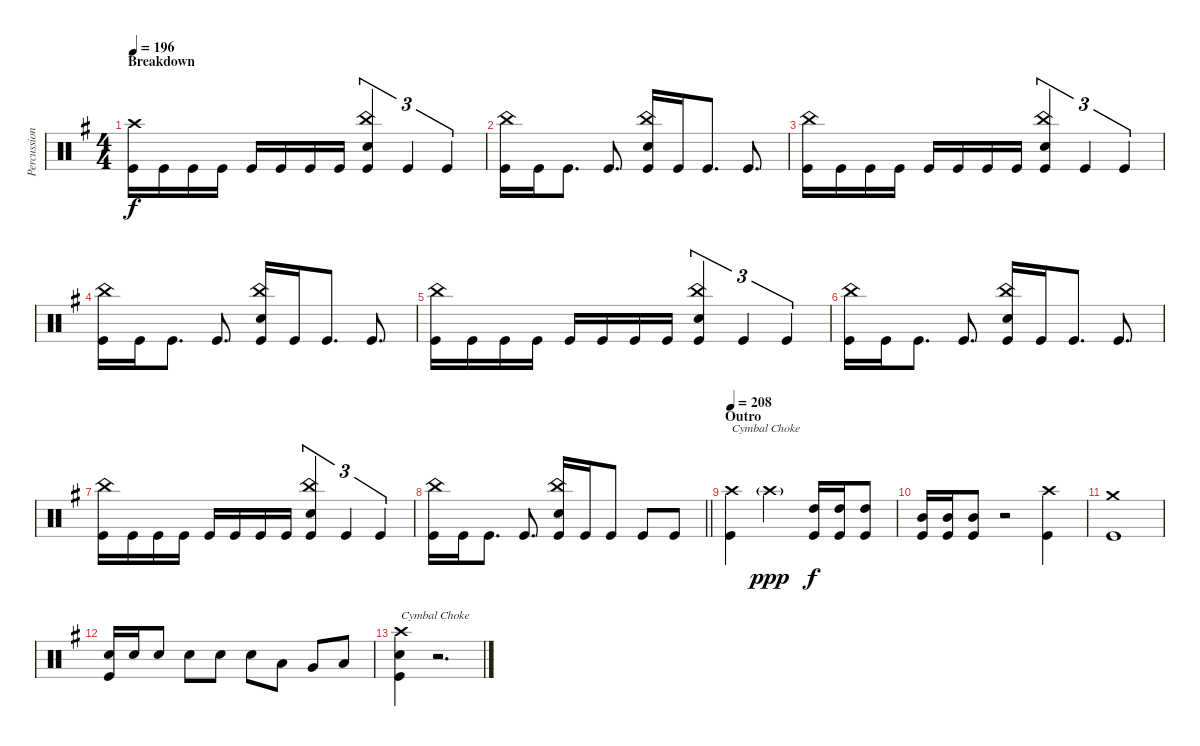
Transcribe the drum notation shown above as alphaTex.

\track ("Percussion" "Percussion") {instrument percussion}
\staff {score}
\articulation defaults
\ts (4 4)
\section ("" "Breakdown")
\tempo 196
\clef neutral
\ks g
("Crash high (hit)" "Kick (hit)").16{dy f} "Kick (hit)".16 "Kick (hit)".16 "Kick (hit)".16 "Kick (hit)".16 "Kick (hit)".16 "Kick (hit)".16 "Kick (hit)".16 ("China (hit)" "Electric Snare (hit)" "Kick (hit)").4{tu (3 2)} "Kick (hit)".4{tu (3 2)} "Kick (hit)".4{tu (3 2)} |
("China (hit)" "Kick (hit)").16 "Kick (hit)".16 "Kick (hit)".8{d} "Kick (hit)".8{d} ("China (hit)" "Electric Snare (hit)" "Kick (hit)").16 "Kick (hit)".16 "Kick (hit)".8{d} "Kick (hit)".8{d} |
("China (hit)" "Kick (hit)").16 "Kick (hit)".16 "Kick (hit)".16 "Kick (hit)".16 "Kick (hit)".16 "Kick (hit)".16 "Kick (hit)".16 "Kick (hit)".16 ("China (hit)" "Electric Snare (hit)" "Kick (hit)").4{tu (3 2)} "Kick (hit)".4{tu (3 2)} "Kick (hit)".4{tu (3 2)} |
("China (hit)" "Kick (hit)").16 "Kick (hit)".16 "Kick (hit)".8{d} "Kick (hit)".8{d} ("China (hit)" "Electric Snare (hit)" "Kick (hit)").16 "Kick (hit)".16 "Kick (hit)".8{d} "Kick (hit)".8{d} |
("China (hit)" "Kick (hit)").16 "Kick (hit)".16 "Kick (hit)".16 "Kick (hit)".16 "Kick (hit)".16 "Kick (hit)".16 "Kick (hit)".16 "Kick (hit)".16 ("China (hit)" "Electric Snare (hit)" "Kick (hit)").4{tu (3 2)} "Kick (hit)".4{tu (3 2)} "Kick (hit)".4{tu (3 2)} |
("China (hit)" "Kick (hit)").16 "Kick (hit)".16 "Kick (hit)".8{d} "Kick (hit)".8{d} ("China (hit)" "Electric Snare (hit)" "Kick (hit)").16 "Kick (hit)".16 "Kick (hit)".8{d} "Kick (hit)".8{d} |
("China (hit)" "Kick (hit)").16 "Kick (hit)".16 "Kick (hit)".16 "Kick (hit)".16 "Kick (hit)".16 "Kick (hit)".16 "Kick (hit)".16 "Kick (hit)".16 ("China (hit)" "Electric Snare (hit)" "Kick (hit)").4{tu (3 2)} "Kick (hit)".4{tu (3 2)} "Kick (hit)".4{tu (3 2)} |
\barLineRight lightlight
("China (hit)" "Kick (hit)").16 "Kick (hit)".16 "Kick (hit)".8{d} "Kick (hit)".8{d} ("China (hit)" "Electric Snare (hit)" "Kick (hit)").16 "Kick (hit)".16 "Kick (hit)".8 "Kick (hit)".8 "Kick (hit)".8 |
\section ("" "Outro")
\tempo 208
("Crash high (hit)" "Kick (hit)").4{txt "Cymbal Choke"} "Crash high (hit)"{g}.2{dy ppp volume 0} ("High Tom (hit)" "Kick (hit)").16{dy f volume 10} ("High Tom (hit)" "Kick (hit)").16 ("High Tom (hit)" "Kick (hit)").8 |
("Mid Tom (hit)" "Kick (hit)").16 ("Mid Tom (hit)" "Kick (hit)").16 ("Mid Tom (hit)" "Kick (hit)").8 r.2 ("Crash high (hit)" "Kick (hit)").4 |
("Crash medium (hit)" "Kick (hit)").1 |
("Electric Snare (hit)" "Kick (hit)").16 "Electric Snare (hit)".16 "Electric Snare (hit)".8 "Electric Snare (hit)".8 "Electric Snare (hit)".8 "Electric Snare (hit)".8 "Low Tom (hit)".8 "Very Low Tom (hit)".8 "Low Floor Tom (hit)".8 |
("Crash high (hit)" "Electric Snare (hit)" "Kick (hit)").4{txt "Cymbal Choke"} r.2{d volume 0}
